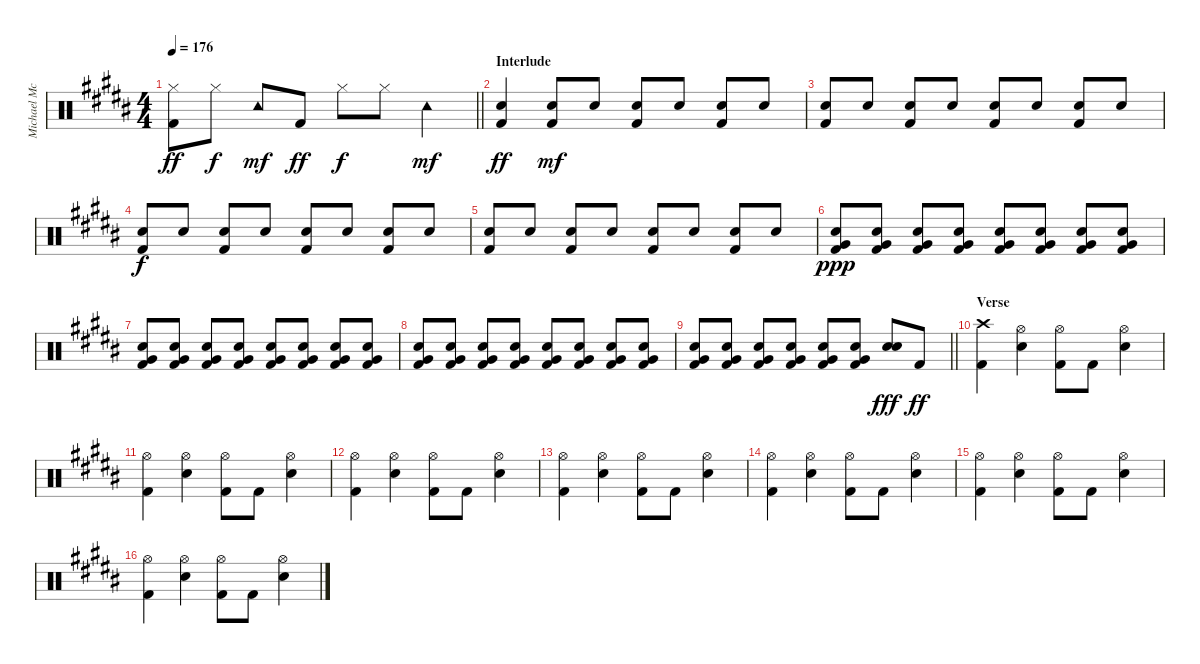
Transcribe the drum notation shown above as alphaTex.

\track ("Michael McDermott - Drums" "Michael Mc") {instrument percussion}
\staff {score}
\articulation defaults
\ts (4 4)
\tempo 176
\clef neutral
\barLineRight lightlight
\ks b
("Kick (hit) 2" "Hi-Hat (closed)").8{dy ff} "Hi-Hat (closed)".8{dy f} "Tambourine (hit)".8{dy mf} "Kick (hit) 2".8{dy ff} "Hi-Hat (closed)".8{dy f} "Hi-Hat (closed)".8 "Tambourine (hit)".4{dy mf} |
\section ("" "Interlude")
("Kick (hit) 2" "Snare (hit) 2").4{dy ff} ("Kick (hit) 2" "Snare (hit) 2").8{dy mf} "Snare (hit) 2".8 ("Kick (hit) 2" "Snare (hit) 2").8 "Snare (hit) 2".8 ("Kick (hit) 2" "Snare (hit) 2").8 "Snare (hit) 2".8 |
("Kick (hit) 2" "Snare (hit) 2").8 "Snare (hit) 2".8 ("Kick (hit) 2" "Snare (hit) 2").8 "Snare (hit) 2".8 ("Kick (hit) 2" "Snare (hit) 2").8 "Snare (hit) 2".8 ("Kick (hit) 2" "Snare (hit) 2").8 "Snare (hit) 2".8 |
("Kick (hit) 2" "Snare (hit) 2").8{dy f} "Snare (hit) 2".8 ("Kick (hit) 2" "Snare (hit) 2").8 "Snare (hit) 2".8 ("Kick (hit) 2" "Snare (hit) 2").8 "Snare (hit) 2".8 ("Kick (hit) 2" "Snare (hit) 2").8 "Snare (hit) 2".8 |
("Kick (hit) 2" "Snare (hit) 2").8 "Snare (hit) 2".8 ("Kick (hit) 2" "Snare (hit) 2").8 "Snare (hit) 2".8 ("Kick (hit) 2" "Snare (hit) 2").8 "Snare (hit) 2".8 ("Kick (hit) 2" "Snare (hit) 2").8 "Snare (hit) 2".8 |
("Kick (hit) 2" "Snare (hit) 2" "Very Low Tom (hit)").8{dy ppp} ("Kick (hit) 2" "Snare (hit) 2" "Very Low Tom (hit)").8 ("Kick (hit) 2" "Snare (hit) 2" "Very Low Tom (hit)").8 ("Kick (hit) 2" "Snare (hit) 2" "Very Low Tom (hit)").8 ("Kick (hit) 2" "Snare (hit) 2" "Very Low Tom (hit)").8 ("Kick (hit) 2" "Snare (hit) 2" "Very Low Tom (hit)").8 ("Kick (hit) 2" "Snare (hit) 2" "Very Low Tom (hit)").8 ("Kick (hit) 2" "Snare (hit) 2" "Very Low Tom (hit)").8 |
("Kick (hit) 2" "Snare (hit) 2" "Very Low Tom (hit)").8 ("Kick (hit) 2" "Snare (hit) 2" "Very Low Tom (hit)").8 ("Kick (hit) 2" "Snare (hit) 2" "Very Low Tom (hit)").8 ("Kick (hit) 2" "Snare (hit) 2" "Very Low Tom (hit)").8 ("Kick (hit) 2" "Snare (hit) 2" "Very Low Tom (hit)").8 ("Kick (hit) 2" "Snare (hit) 2" "Very Low Tom (hit)").8 ("Kick (hit) 2" "Snare (hit) 2" "Very Low Tom (hit)").8 ("Kick (hit) 2" "Snare (hit) 2" "Very Low Tom (hit)").8 |
("Kick (hit) 2" "Snare (hit) 2" "Very Low Tom (hit)").8 ("Kick (hit) 2" "Snare (hit) 2" "Very Low Tom (hit)").8 ("Kick (hit) 2" "Snare (hit) 2" "Very Low Tom (hit)").8 ("Kick (hit) 2" "Snare (hit) 2" "Very Low Tom (hit)").8 ("Kick (hit) 2" "Snare (hit) 2" "Very Low Tom (hit)").8 ("Kick (hit) 2" "Snare (hit) 2" "Very Low Tom (hit)").8 ("Kick (hit) 2" "Snare (hit) 2" "Very Low Tom (hit)").8 ("Kick (hit) 2" "Snare (hit) 2" "Very Low Tom (hit)").8 |
\barLineRight lightlight
("Kick (hit) 2" "Snare (hit) 2" "Very Low Tom (hit)").8 ("Kick (hit) 2" "Snare (hit) 2" "Very Low Tom (hit)").8 ("Kick (hit) 2" "Snare (hit) 2" "Very Low Tom (hit)").8 ("Kick (hit) 2" "Snare (hit) 2" "Very Low Tom (hit)").8 ("Kick (hit) 2" "Snare (hit) 2" "Very Low Tom (hit)").8 ("Kick (hit) 2" "Snare (hit) 2" "Very Low Tom (hit)").8 ("Electric Snare (hit)" "Snare (hit) 2").8{dy fff} "Kick (hit) 2".8{dy ff} |
\section ("" "Verse")
("Kick (hit) 2" "Crash high (hit)").4{volume 9} ("Snare (hit) 2" "Hi-Hat (open)").4 ("Hi-Hat (open)" "Kick (hit) 2").8 "Kick (hit) 2".8 ("Snare (hit) 2" "Hi-Hat (open)").4 |
("Hi-Hat (open)" "Kick (hit) 2").4 ("Snare (hit) 2" "Hi-Hat (open)").4 ("Hi-Hat (open)" "Kick (hit) 2").8 "Kick (hit) 2".8 ("Snare (hit) 2" "Hi-Hat (open)").4 |
("Hi-Hat (open)" "Kick (hit) 2").4 ("Snare (hit) 2" "Hi-Hat (open)").4 ("Hi-Hat (open)" "Kick (hit) 2").8 "Kick (hit) 2".8 ("Snare (hit) 2" "Hi-Hat (open)").4 |
("Hi-Hat (open)" "Kick (hit) 2").4 ("Snare (hit) 2" "Hi-Hat (open)").4 ("Hi-Hat (open)" "Kick (hit) 2").8 "Kick (hit) 2".8 ("Snare (hit) 2" "Hi-Hat (open)").4 |
("Hi-Hat (open)" "Kick (hit) 2").4 ("Snare (hit) 2" "Hi-Hat (open)").4 ("Hi-Hat (open)" "Kick (hit) 2").8 "Kick (hit) 2".8 ("Snare (hit) 2" "Hi-Hat (open)").4 |
("Hi-Hat (open)" "Kick (hit) 2").4 ("Snare (hit) 2" "Hi-Hat (open)").4 ("Hi-Hat (open)" "Kick (hit) 2").8 "Kick (hit) 2".8 ("Snare (hit) 2" "Hi-Hat (open)").4 |
("Hi-Hat (open)" "Kick (hit) 2").4 ("Snare (hit) 2" "Hi-Hat (open)").4 ("Hi-Hat (open)" "Kick (hit) 2").8 "Kick (hit) 2".8 ("Snare (hit) 2" "Hi-Hat (open)").4
